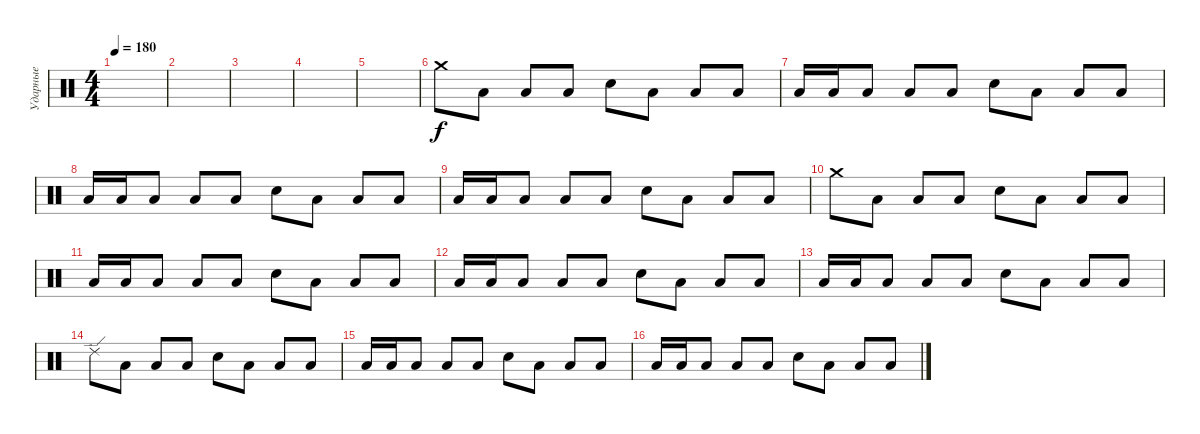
\track ("Ударные" "Ударные") {instrument percussion}
\staff {score}
\articulation defaults
\ts (4 4)
\tempo 180
\clef neutral
\ks c
|
|
|
|
|
"Crash medium (hit)".8 "Low Floor Tom (hit)".8 "Low Floor Tom (hit)".8 "Low Floor Tom (hit)".8 "Electric Snare (hit)".8 "Low Floor Tom (hit)".8 "Low Floor Tom (hit)".8 "Low Floor Tom (hit)".8 |
"Low Floor Tom (hit)".16 "Low Floor Tom (hit)".16 "Low Floor Tom (hit)".8 "Low Floor Tom (hit)".8 "Low Floor Tom (hit)".8 "Electric Snare (hit)".8 "Low Floor Tom (hit)".8 "Low Floor Tom (hit)".8 "Low Floor Tom (hit)".8 |
"Low Floor Tom (hit)".16 "Low Floor Tom (hit)".16 "Low Floor Tom (hit)".8 "Low Floor Tom (hit)".8 "Low Floor Tom (hit)".8 "Electric Snare (hit)".8 "Low Floor Tom (hit)".8 "Low Floor Tom (hit)".8 "Low Floor Tom (hit)".8 |
"Low Floor Tom (hit)".16 "Low Floor Tom (hit)".16 "Low Floor Tom (hit)".8 "Low Floor Tom (hit)".8 "Low Floor Tom (hit)".8 "Electric Snare (hit)".8 "Low Floor Tom (hit)".8 "Low Floor Tom (hit)".8 "Low Floor Tom (hit)".8 |
"Crash medium (hit)".8 "Low Floor Tom (hit)".8 "Low Floor Tom (hit)".8 "Low Floor Tom (hit)".8 "Electric Snare (hit)".8 "Low Floor Tom (hit)".8 "Low Floor Tom (hit)".8 "Low Floor Tom (hit)".8 |
"Low Floor Tom (hit)".16 "Low Floor Tom (hit)".16 "Low Floor Tom (hit)".8 "Low Floor Tom (hit)".8 "Low Floor Tom (hit)".8 "Electric Snare (hit)".8 "Low Floor Tom (hit)".8 "Low Floor Tom (hit)".8 "Low Floor Tom (hit)".8 |
"Low Floor Tom (hit)".16 "Low Floor Tom (hit)".16 "Low Floor Tom (hit)".8 "Low Floor Tom (hit)".8 "Low Floor Tom (hit)".8 "Electric Snare (hit)".8 "Low Floor Tom (hit)".8 "Low Floor Tom (hit)".8 "Low Floor Tom (hit)".8 |
"Low Floor Tom (hit)".16 "Low Floor Tom (hit)".16 "Low Floor Tom (hit)".8 "Low Floor Tom (hit)".8 "Low Floor Tom (hit)".8 "Electric Snare (hit)".8 "Low Floor Tom (hit)".8 "Low Floor Tom (hit)".8 "Low Floor Tom (hit)".8 |
"Ride (edge) 2".8 "Low Floor Tom (hit)".8 "Low Floor Tom (hit)".8 "Low Floor Tom (hit)".8 "Electric Snare (hit)".8 "Low Floor Tom (hit)".8 "Low Floor Tom (hit)".8 "Low Floor Tom (hit)".8 |
"Low Floor Tom (hit)".16 "Low Floor Tom (hit)".16 "Low Floor Tom (hit)".8 "Low Floor Tom (hit)".8 "Low Floor Tom (hit)".8 "Electric Snare (hit)".8 "Low Floor Tom (hit)".8 "Low Floor Tom (hit)".8 "Low Floor Tom (hit)".8 |
"Low Floor Tom (hit)".16 "Low Floor Tom (hit)".16 "Low Floor Tom (hit)".8 "Low Floor Tom (hit)".8 "Low Floor Tom (hit)".8 "Electric Snare (hit)".8 "Low Floor Tom (hit)".8 "Low Floor Tom (hit)".8 "Low Floor Tom (hit)".8
